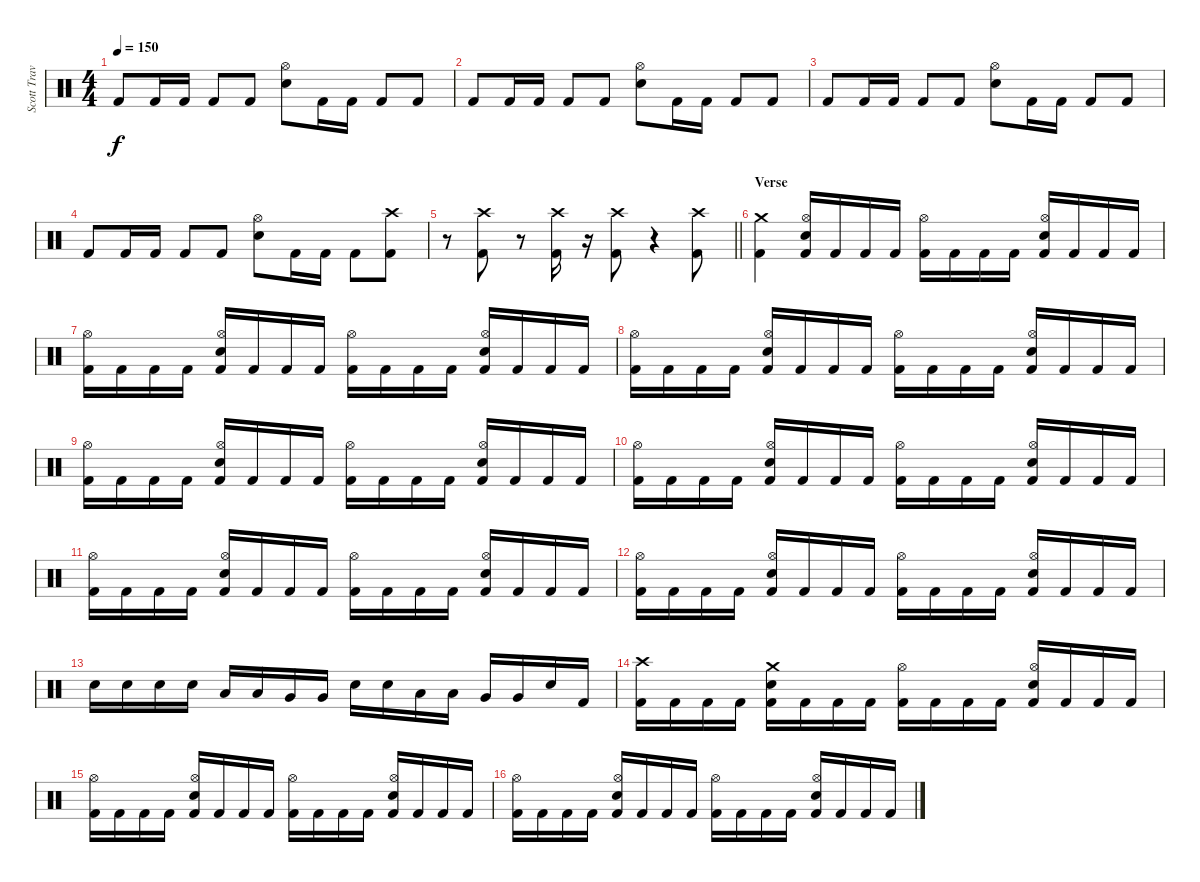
\track ("Scott Travis" "Scott Trav") {instrument percussion}
\staff {score}
\articulation defaults
\ts (4 4)
\tempo 150
\clef neutral
\ks c "Kick (hit) 2".8{dy f} "Kick (hit) 2".16 "Kick (hit) 2".16 "Kick (hit) 2".8 "Kick (hit) 2".8
("Hi-Hat (open)" "Snare (hit) 2").8 "Kick (hit) 2".16 "Kick (hit) 2".16 "Kick (hit) 2".8 "Kick (hit) 2".8 |
"Kick (hit) 2".8 "Kick (hit) 2".16 "Kick (hit) 2".16 "Kick (hit) 2".8 "Kick (hit) 2".8 ("Hi-Hat (open)" "Snare (hit) 2").8 "Kick (hit) 2".16 "Kick (hit) 2".16 "Kick (hit) 2".8 "Kick (hit) 2".8 |
"Kick (hit) 2".8 "Kick (hit) 2".16 "Kick (hit) 2".16 "Kick (hit) 2".8 "Kick (hit) 2".8 ("Hi-Hat (open)" "Snare (hit) 2").8 "Kick (hit) 2".16 "Kick (hit) 2".16 "Kick (hit) 2".8 "Kick (hit) 2".8 |
"Kick (hit) 2".8 "Kick (hit) 2".16 "Kick (hit) 2".16 "Kick (hit) 2".8 "Kick (hit) 2".8 ("Hi-Hat (open)" "Snare (hit) 2").8 "Kick (hit) 2".16 "Kick (hit) 2".16 "Kick (hit) 2".8 ("Crash high (hit)" "Kick (hit) 2").8 |
\barLineRight lightlight
r.8{volume 0} ("Crash high (hit)" "Kick (hit) 2").8{volume 16} r.8{volume 0} ("Crash high (hit)" "Kick (hit) 2").16{volume 16} r.16{volume 0} ("Crash high (hit)" "Kick (hit) 2").8{volume 16} r.4{volume 0} ("Crash high (hit)" "Kick (hit) 2").8{volume 16} |
\section ("" "Verse")
("Crash medium (hit)" "Kick (hit) 2").4 ("Hi-Hat (open)" "Snare (hit) 2" "Kick (hit) 2").16 "Kick (hit) 2".16 "Kick (hit) 2".16 "Kick (hit) 2".16 ("Hi-Hat (open)" "Kick (hit) 2").16 "Kick (hit) 2".16 "Kick (hit) 2".16 "Kick (hit) 2".16 ("Hi-Hat (open)" "Snare (hit) 2" "Kick (hit) 2").16 "Kick (hit) 2".16 "Kick (hit) 2".16 "Kick (hit) 2".16 |
("Hi-Hat (open)" "Kick (hit) 2").16 "Kick (hit) 2".16 "Kick (hit) 2".16 "Kick (hit) 2".16 ("Hi-Hat (open)" "Snare (hit) 2" "Kick (hit) 2").16 "Kick (hit) 2".16 "Kick (hit) 2".16 "Kick (hit) 2".16 ("Hi-Hat (open)" "Kick (hit) 2").16 "Kick (hit) 2".16 "Kick (hit) 2".16 "Kick (hit) 2".16 ("Hi-Hat (open)" "Snare (hit) 2" "Kick (hit) 2").16 "Kick (hit) 2".16 "Kick (hit) 2".16 "Kick (hit) 2".16 |
("Hi-Hat (open)" "Kick (hit) 2").16 "Kick (hit) 2".16 "Kick (hit) 2".16 "Kick (hit) 2".16 ("Hi-Hat (open)" "Snare (hit) 2" "Kick (hit) 2").16 "Kick (hit) 2".16 "Kick (hit) 2".16 "Kick (hit) 2".16 ("Hi-Hat (open)" "Kick (hit) 2").16 "Kick (hit) 2".16 "Kick (hit) 2".16 "Kick (hit) 2".16 ("Hi-Hat (open)" "Snare (hit) 2" "Kick (hit) 2").16 "Kick (hit) 2".16 "Kick (hit) 2".16 "Kick (hit) 2".16 |
("Hi-Hat (open)" "Kick (hit) 2").16 "Kick (hit) 2".16 "Kick (hit) 2".16 "Kick (hit) 2".16 ("Hi-Hat (open)" "Snare (hit) 2" "Kick (hit) 2").16 "Kick (hit) 2".16 "Kick (hit) 2".16 "Kick (hit) 2".16 ("Hi-Hat (open)" "Kick (hit) 2").16 "Kick (hit) 2".16 "Kick (hit) 2".16 "Kick (hit) 2".16 ("Hi-Hat (open)" "Snare (hit) 2" "Kick (hit) 2").16 "Kick (hit) 2".16 "Kick (hit) 2".16 "Kick (hit) 2".16 |
("Hi-Hat (open)" "Kick (hit) 2").16 "Kick (hit) 2".16 "Kick (hit) 2".16 "Kick (hit) 2".16 ("Hi-Hat (open)" "Snare (hit) 2" "Kick (hit) 2").16 "Kick (hit) 2".16 "Kick (hit) 2".16 "Kick (hit) 2".16 ("Hi-Hat (open)" "Kick (hit) 2").16 "Kick (hit) 2".16 "Kick (hit) 2".16 "Kick (hit) 2".16 ("Hi-Hat (open)" "Snare (hit) 2" "Kick (hit) 2").16 "Kick (hit) 2".16 "Kick (hit) 2".16 "Kick (hit) 2".16 |
("Hi-Hat (open)" "Kick (hit) 2").16 "Kick (hit) 2".16 "Kick (hit) 2".16 "Kick (hit) 2".16 ("Hi-Hat (open)" "Snare (hit) 2" "Kick (hit) 2").16 "Kick (hit) 2".16 "Kick (hit) 2".16 "Kick (hit) 2".16 ("Hi-Hat (open)" "Kick (hit) 2").16 "Kick (hit) 2".16 "Kick (hit) 2".16 "Kick (hit) 2".16 ("Hi-Hat (open)" "Snare (hit) 2" "Kick (hit) 2").16 "Kick (hit) 2".16 "Kick (hit) 2".16 "Kick (hit) 2".16 |
("Hi-Hat (open)" "Kick (hit) 2").16 "Kick (hit) 2".16 "Kick (hit) 2".16 "Kick (hit) 2".16 ("Hi-Hat (open)" "Snare (hit) 2" "Kick (hit) 2").16 "Kick (hit) 2".16 "Kick (hit) 2".16 "Kick (hit) 2".16 ("Hi-Hat (open)" "Kick (hit) 2").16 "Kick (hit) 2".16 "Kick (hit) 2".16 "Kick (hit) 2".16 ("Hi-Hat (open)" "Snare (hit) 2" "Kick (hit) 2").16 "Kick (hit) 2".16 "Kick (hit) 2".16 "Kick (hit) 2".16 |
"Snare (hit) 2".16 "Snare (hit) 2".16 "Snare (hit) 2".16 "Snare (hit) 2".16 "Low Tom (hit)".16 "Low Tom (hit)".16 "Very Low Tom (hit)".16 "Very Low Tom (hit)".16 "Snare (hit) 2".16 "Snare (hit) 2".16 "Low Tom (hit)".16 "Low Tom (hit)".16 "Very Low Tom (hit)".16 "Very Low Tom (hit)".16 "Snare (hit) 2".16 "Kick (hit) 2".16 |
("Crash high (hit)" "Kick (hit) 2").16 "Kick (hit) 2".16 "Kick (hit) 2".16 "Kick (hit) 2".16 ("Crash medium (hit)" "Snare (hit) 2" "Kick (hit) 2").16 "Kick (hit) 2".16 "Kick (hit) 2".16 "Kick (hit) 2".16 ("Hi-Hat (open)" "Kick (hit) 2").16 "Kick (hit) 2".16 "Kick (hit) 2".16 "Kick (hit) 2".16 ("Hi-Hat (open)" "Snare (hit) 2" "Kick (hit) 2").16 "Kick (hit) 2".16 "Kick (hit) 2".16 "Kick (hit) 2".16 |
("Hi-Hat (open)" "Kick (hit) 2").16 "Kick (hit) 2".16 "Kick (hit) 2".16 "Kick (hit) 2".16 ("Hi-Hat (open)" "Snare (hit) 2" "Kick (hit) 2").16 "Kick (hit) 2".16 "Kick (hit) 2".16 "Kick (hit) 2".16 ("Hi-Hat (open)" "Kick (hit) 2").16 "Kick (hit) 2".16 "Kick (hit) 2".16 "Kick (hit) 2".16 ("Hi-Hat (open)" "Snare (hit) 2" "Kick (hit) 2").16 "Kick (hit) 2".16 "Kick (hit) 2".16 "Kick (hit) 2".16 |
("Hi-Hat (open)" "Kick (hit) 2").16 "Kick (hit) 2".16 "Kick (hit) 2".16 "Kick (hit) 2".16 ("Hi-Hat (open)" "Snare (hit) 2" "Kick (hit) 2").16 "Kick (hit) 2".16 "Kick (hit) 2".16 "Kick (hit) 2".16 ("Hi-Hat (open)" "Kick (hit) 2").16 "Kick (hit) 2".16 "Kick (hit) 2".16 "Kick (hit) 2".16 ("Hi-Hat (open)" "Snare (hit) 2" "Kick (hit) 2").16 "Kick (hit) 2".16 "Kick (hit) 2".16 "Kick (hit) 2".16
